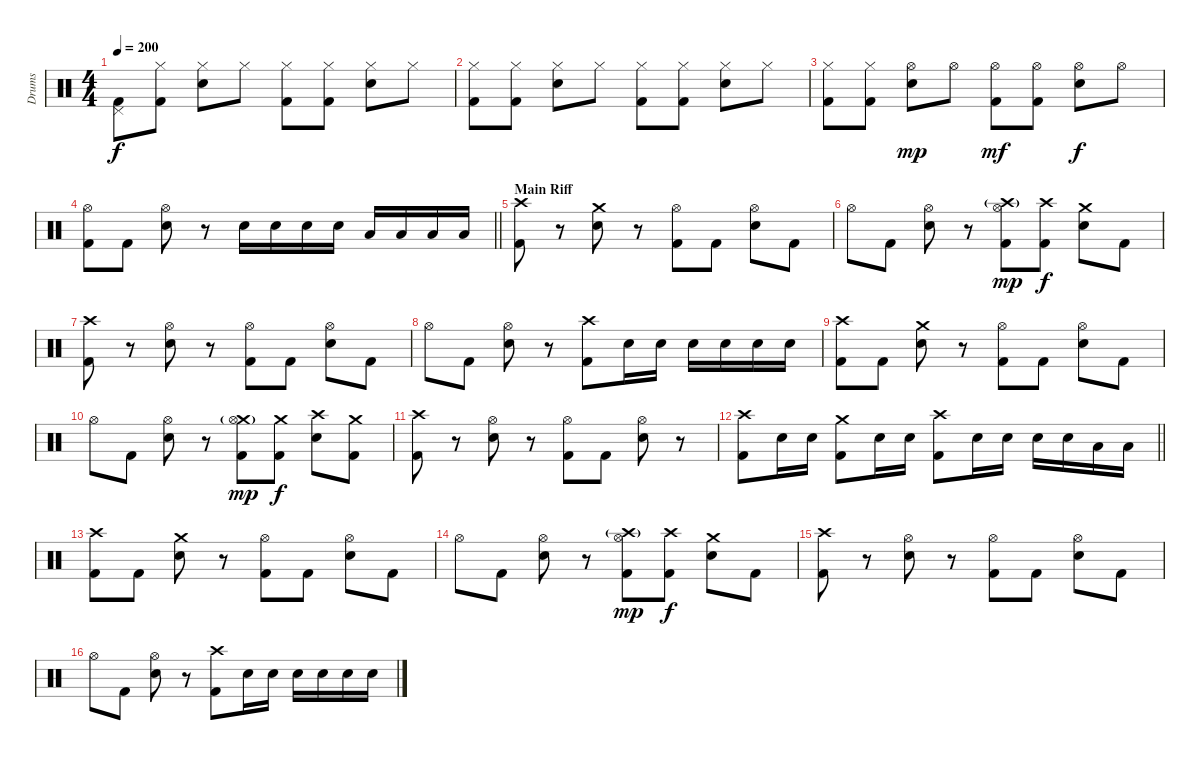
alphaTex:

\track ("Drums" "Drums") {instrument percussion}
\staff {score}
\articulation defaults
\ts (4 4)
\tempo 200
\clef neutral
\ks c
("Pedal Hi-Hat (hit)" "Kick (hit) 2").8{dy f} ("Hi-Hat (closed)" "Kick (hit) 2").8 ("Hi-Hat (closed)" "Electric Snare (hit)").8 "Hi-Hat (closed)".8 ("Hi-Hat (closed)" "Kick (hit) 2").8 ("Hi-Hat (closed)" "Kick (hit) 2").8 ("Hi-Hat (closed)" "Electric Snare (hit)").8 "Hi-Hat (closed)".8 |
("Hi-Hat (closed)" "Kick (hit) 2").8 ("Hi-Hat (closed)" "Kick (hit) 2").8 ("Hi-Hat (closed)" "Electric Snare (hit)").8 "Hi-Hat (closed)".8 ("Hi-Hat (closed)" "Kick (hit) 2").8 ("Hi-Hat (closed)" "Kick (hit) 2").8 ("Hi-Hat (closed)" "Electric Snare (hit)").8 "Hi-Hat (closed)".8 |
("Hi-Hat (closed)" "Kick (hit) 2").8 ("Hi-Hat (closed)" "Kick (hit) 2").8 ("Hi-Hat (open)" "Electric Snare (hit)").8{dy mp} "Hi-Hat (open)".8 ("Hi-Hat (open)" "Kick (hit) 2").8{dy mf} ("Hi-Hat (open)" "Kick (hit) 2").8 ("Hi-Hat (open)" "Electric Snare (hit)").8{dy f} "Hi-Hat (open)".8 |
\barLineRight lightlight
("Hi-Hat (open)" "Kick (hit) 2").8 "Kick (hit) 2".8 ("Hi-Hat (open)" "Electric Snare (hit)").8 r.8 "Electric Snare (hit)".16 "Electric Snare (hit)".16 "Electric Snare (hit)".16 "Electric Snare (hit)".16 "Low Tom (hit)".16 "Low Tom (hit)".16 "Low Tom (hit)".16 "Low Tom (hit)".16 |
\section ("" "Main Riff")
("Crash high (hit)" "Kick (hit) 2").8 r.8 ("Crash medium (hit)" "Electric Snare (hit)").8 r.8 ("Hi-Hat (open)" "Kick (hit) 2").8 "Kick (hit) 2".8 ("Hi-Hat (open)" "Electric Snare (hit)").8 "Kick (hit) 2".8 |
"Hi-Hat (open)".8 "Kick (hit) 2".8 ("Hi-Hat (open)" "Electric Snare (hit)").8 r.8 ("Crash high (hit)"{g} "Hi-Hat (open)" "Kick (hit) 2").8{dy mp} ("Crash high (hit)" "Kick (hit) 2").8{dy f} ("Crash medium (hit)" "Electric Snare (hit)").8 "Kick (hit) 2".8 |
("Crash high (hit)" "Kick (hit) 2").8 r.8 ("Hi-Hat (open)" "Electric Snare (hit)").8 r.8 ("Hi-Hat (open)" "Kick (hit) 2").8 "Kick (hit) 2".8 ("Hi-Hat (open)" "Electric Snare (hit)").8 "Kick (hit) 2".8 |
"Hi-Hat (open)".8 "Kick (hit) 2".8 ("Hi-Hat (open)" "Electric Snare (hit)").8 r.8 ("Crash high (hit)" "Kick (hit) 2").8 "Electric Snare (hit)".16 "Electric Snare (hit)".16 "Electric Snare (hit)".16 "Electric Snare (hit)".16 "Electric Snare (hit)".16 "Electric Snare (hit)".16 |
("Crash high (hit)" "Kick (hit) 2").8 "Kick (hit) 2".8 ("Crash medium (hit)" "Electric Snare (hit)").8 r.8 ("Hi-Hat (open)" "Kick (hit) 2").8 "Kick (hit) 2".8 ("Hi-Hat (open)" "Electric Snare (hit)").8 "Kick (hit) 2".8 |
"Hi-Hat (open)".8 "Kick (hit) 2".8 ("Hi-Hat (open)" "Electric Snare (hit)").8 r.8 ("Crash medium (hit)"{g} "Hi-Hat (open)" "Kick (hit) 2").8{dy mp} ("Crash medium (hit)" "Kick (hit) 2").8{dy f} ("Crash high (hit)" "Electric Snare (hit)").8 ("Crash medium (hit)" "Kick (hit) 2").8 |
("Crash high (hit)" "Kick (hit) 2").8 r.8 ("Hi-Hat (open)" "Electric Snare (hit)").8 r.8 ("Hi-Hat (open)" "Kick (hit) 2").8 "Kick (hit) 2".8 ("Hi-Hat (open)" "Electric Snare (hit)").8 r.8 |
\barLineRight lightlight
("Crash high (hit)" "Kick (hit) 2").8 "Electric Snare (hit)".16 "Electric Snare (hit)".16 ("Crash medium (hit)" "Kick (hit) 2").8 "Electric Snare (hit)".16 "Electric Snare (hit)".16 ("Crash high (hit)" "Kick (hit) 2").8 "Electric Snare (hit)".16 "Electric Snare (hit)".16 "Electric Snare (hit)".16 "Electric Snare (hit)".16 "Low Tom (hit)".16 "Low Tom (hit)".16 |
("Crash high (hit)" "Kick (hit) 2").8 "Kick (hit) 2".8 ("Crash medium (hit)" "Electric Snare (hit)").8 r.8 ("Hi-Hat (open)" "Kick (hit) 2").8 "Kick (hit) 2".8 ("Hi-Hat (open)" "Electric Snare (hit)").8 "Kick (hit) 2".8 |
"Hi-Hat (open)".8 "Kick (hit) 2".8 ("Hi-Hat (open)" "Electric Snare (hit)").8 r.8 ("Crash high (hit)"{g} "Hi-Hat (open)" "Kick (hit) 2").8{dy mp} ("Crash high (hit)" "Kick (hit) 2").8{dy f} ("Crash medium (hit)" "Electric Snare (hit)").8 "Kick (hit) 2".8 |
("Crash high (hit)" "Kick (hit) 2").8 r.8 ("Hi-Hat (open)" "Electric Snare (hit)").8 r.8 ("Hi-Hat (open)" "Kick (hit) 2").8 "Kick (hit) 2".8 ("Hi-Hat (open)" "Electric Snare (hit)").8 "Kick (hit) 2".8 |
"Hi-Hat (open)".8 "Kick (hit) 2".8 ("Hi-Hat (open)" "Electric Snare (hit)").8 r.8 ("Crash high (hit)" "Kick (hit) 2").8 "Electric Snare (hit)".16 "Electric Snare (hit)".16 "Electric Snare (hit)".16 "Electric Snare (hit)".16 "Electric Snare (hit)".16 "Electric Snare (hit)".16
